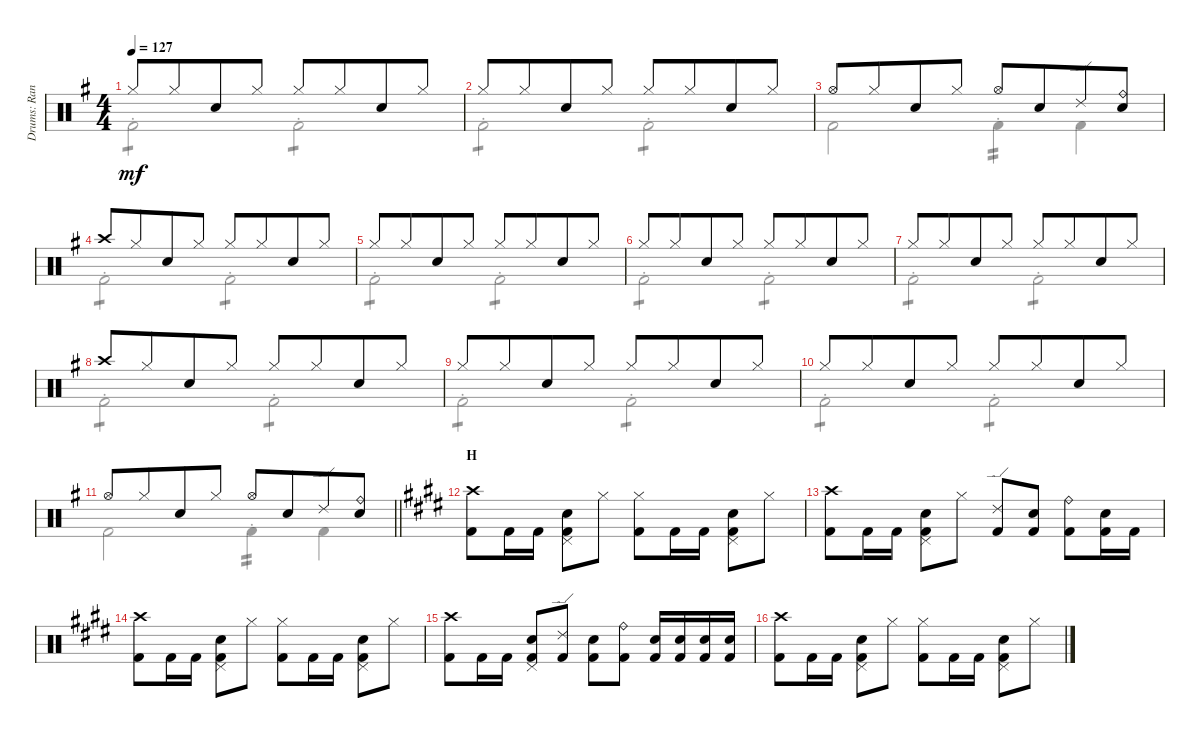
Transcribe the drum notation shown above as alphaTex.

\track ("Drums: Randy" "Drums: Ran") {instrument percussion}
\staff {score}
\articulation defaults
\voice
\ts (4 4)
\tempo 127
\clef neutral
\ks g "Hi-Hat (closed)".8{dy mf} "Hi-Hat (closed)".8{beam merge} "Snare (hit) 2".8 "Hi-Hat (closed)".8 "Hi-Hat (closed)".8 "Hi-Hat (closed)".8{beam merge} "Snare (hit) 2".8 "Hi-Hat (closed)".8
|
"Hi-Hat (closed)".8 "Hi-Hat (closed)".8{beam merge} "Snare (hit) 2".8 "Hi-Hat (closed)".8 "Hi-Hat (closed)".8 "Hi-Hat (closed)".8{beam merge} "Snare (hit) 2".8 "Hi-Hat (closed)".8 |
"Hi-Hat (open)".8 "Hi-Hat (closed)".8{beam merge} "Snare (hit) 2".8 "Hi-Hat (closed)".8 "Hi-Hat (open)".8 "Snare (hit) 2".8{beam merge} "Ride (edge) 2".8 ("Ride (bell)" "Snare (hit) 2").8 |
"Crash high (hit)".8 "Hi-Hat (closed)".8{beam merge} "Snare (hit) 2".8 "Hi-Hat (closed)".8 "Hi-Hat (closed)".8 "Hi-Hat (closed)".8{beam merge} "Snare (hit) 2".8 "Hi-Hat (closed)".8 |
"Hi-Hat (closed)".8 "Hi-Hat (closed)".8{beam merge} "Snare (hit) 2".8 "Hi-Hat (closed)".8 "Hi-Hat (closed)".8 "Hi-Hat (closed)".8{beam merge} "Snare (hit) 2".8 "Hi-Hat (closed)".8 |
"Hi-Hat (closed)".8 "Hi-Hat (closed)".8{beam merge} "Snare (hit) 2".8 "Hi-Hat (closed)".8 "Hi-Hat (closed)".8 "Hi-Hat (closed)".8{beam merge} "Snare (hit) 2".8 "Hi-Hat (closed)".8 |
"Hi-Hat (closed)".8 "Hi-Hat (closed)".8{beam merge} "Snare (hit) 2".8 "Hi-Hat (closed)".8 "Hi-Hat (closed)".8 "Hi-Hat (closed)".8{beam merge} "Snare (hit) 2".8 "Hi-Hat (closed)".8 |
"Crash high (hit)".8 "Hi-Hat (closed)".8{beam merge} "Snare (hit) 2".8 "Hi-Hat (closed)".8 "Hi-Hat (closed)".8 "Hi-Hat (closed)".8{beam merge} "Snare (hit) 2".8 "Hi-Hat (closed)".8 |
"Hi-Hat (closed)".8 "Hi-Hat (closed)".8{beam merge} "Snare (hit) 2".8 "Hi-Hat (closed)".8 "Hi-Hat (closed)".8 "Hi-Hat (closed)".8{beam merge} "Snare (hit) 2".8 "Hi-Hat (closed)".8 |
"Hi-Hat (closed)".8 "Hi-Hat (closed)".8{beam merge} "Snare (hit) 2".8 "Hi-Hat (closed)".8 "Hi-Hat (closed)".8 "Hi-Hat (closed)".8{beam merge} "Snare (hit) 2".8 "Hi-Hat (closed)".8 |
\barLineRight lightlight "Hi-Hat (open)".8 "Hi-Hat (closed)".8{beam merge} "Snare (hit) 2".8 "Hi-Hat (closed)".8 "Hi-Hat (open)".8 "Snare (hit) 2".8{beam merge} "Ride (edge) 2".8
("Ride (bell)" "Snare (hit) 2").8 |
\section ("" "H")
\ks e
("Crash high (hit)" "Kick (hit) 2").8 "Kick (hit) 2".16 "Kick (hit) 2".16 ("Pedal Hi-Hat (hit)" "Snare (hit) 2" "Kick (hit) 2").8 "Hi-Hat (closed)".8 ("Hi-Hat (closed)" "Kick (hit) 2").8 "Kick (hit) 2".16 "Kick (hit) 2".16 ("Pedal Hi-Hat (hit)" "Snare (hit) 2" "Kick (hit) 2").8 "Hi-Hat (closed)".8 |
("Crash high (hit)" "Kick (hit) 2").8 "Kick (hit) 2".16 "Kick (hit) 2".16 ("Pedal Hi-Hat (hit)" "Snare (hit) 2" "Kick (hit) 2").8 "Hi-Hat (closed)".8 ("Ride (edge) 2" "Kick (hit) 2").8 ("Snare (hit) 2" "Kick (hit) 2").8 ("Ride (bell)" "Kick (hit) 2").8 ("Snare (hit) 2" "Kick (hit) 2").16 "Kick (hit) 2".16 |
("Crash high (hit)" "Kick (hit) 2").8 "Kick (hit) 2".16 "Kick (hit) 2".16 ("Pedal Hi-Hat (hit)" "Snare (hit) 2" "Kick (hit) 2").8 "Hi-Hat (closed)".8 ("Hi-Hat (closed)" "Kick (hit) 2").8 "Kick (hit) 2".16 "Kick (hit) 2".16 ("Pedal Hi-Hat (hit)" "Snare (hit) 2" "Kick (hit) 2").8 "Hi-Hat (closed)".8 |
("Crash high (hit)" "Kick (hit) 2").8 "Kick (hit) 2".16 "Kick (hit) 2".16 ("Pedal Hi-Hat (hit)" "Snare (hit) 2" "Kick (hit) 2").8 ("Ride (edge) 2" "Kick (hit) 2").8 ("Snare (hit) 2" "Kick (hit) 2").8 ("Ride (bell)" "Kick (hit) 2").8 ("Snare (hit) 2" "Kick (hit) 2").16 ("Snare (hit) 2" "Kick (hit) 2").16 ("Snare (hit) 2" "Kick (hit) 2").16 ("Snare (hit) 2" "Kick (hit) 2").16 |
("Crash high (hit)" "Kick (hit) 2").8 "Kick (hit) 2".16 "Kick (hit) 2".16 ("Pedal Hi-Hat (hit)" "Snare (hit) 2" "Kick (hit) 2").8 "Hi-Hat (closed)".8 ("Hi-Hat (closed)" "Kick (hit) 2").8 "Kick (hit) 2".16 "Kick (hit) 2".16 ("Pedal Hi-Hat (hit)" "Snare (hit) 2" "Kick (hit) 2").8 "Hi-Hat (closed)".8
\voice
\clef neutral
\ottava regular
\simile none
\ks g "Kick (hit) 2"{st}.2{tp 1 dy mf} "Kick (hit) 2"{st}.2{tp 1}
|
"Kick (hit) 2"{st}.2{tp 1} "Kick (hit) 2"{st}.2{tp 1} |
"Kick (hit) 2".2 "Kick (hit) 2"{st}.4{tp 2} "Kick (hit) 2".4 |
"Kick (hit) 2"{st}.2{tp 1} "Kick (hit) 2"{st}.2{tp 1} |
"Kick (hit) 2"{st}.2{tp 1} "Kick (hit) 2"{st}.2{tp 1} |
"Kick (hit) 2"{st}.2{tp 1} "Kick (hit) 2"{st}.2{tp 1} |
"Kick (hit) 2"{st}.2{tp 1} "Kick (hit) 2"{st}.2{tp 1} |
"Kick (hit) 2"{st}.2{tp 1} "Kick (hit) 2"{st}.2{tp 1} |
"Kick (hit) 2"{st}.2{tp 1} "Kick (hit) 2"{st}.2{tp 1} |
"Kick (hit) 2"{st}.2{tp 1} "Kick (hit) 2"{st}.2{tp 1} |
\barLineRight lightlight "Kick (hit) 2".2 "Kick (hit) 2"{st}.4{tp 2} "Kick (hit) 2".4
|
\ks e
|
|
|
|
